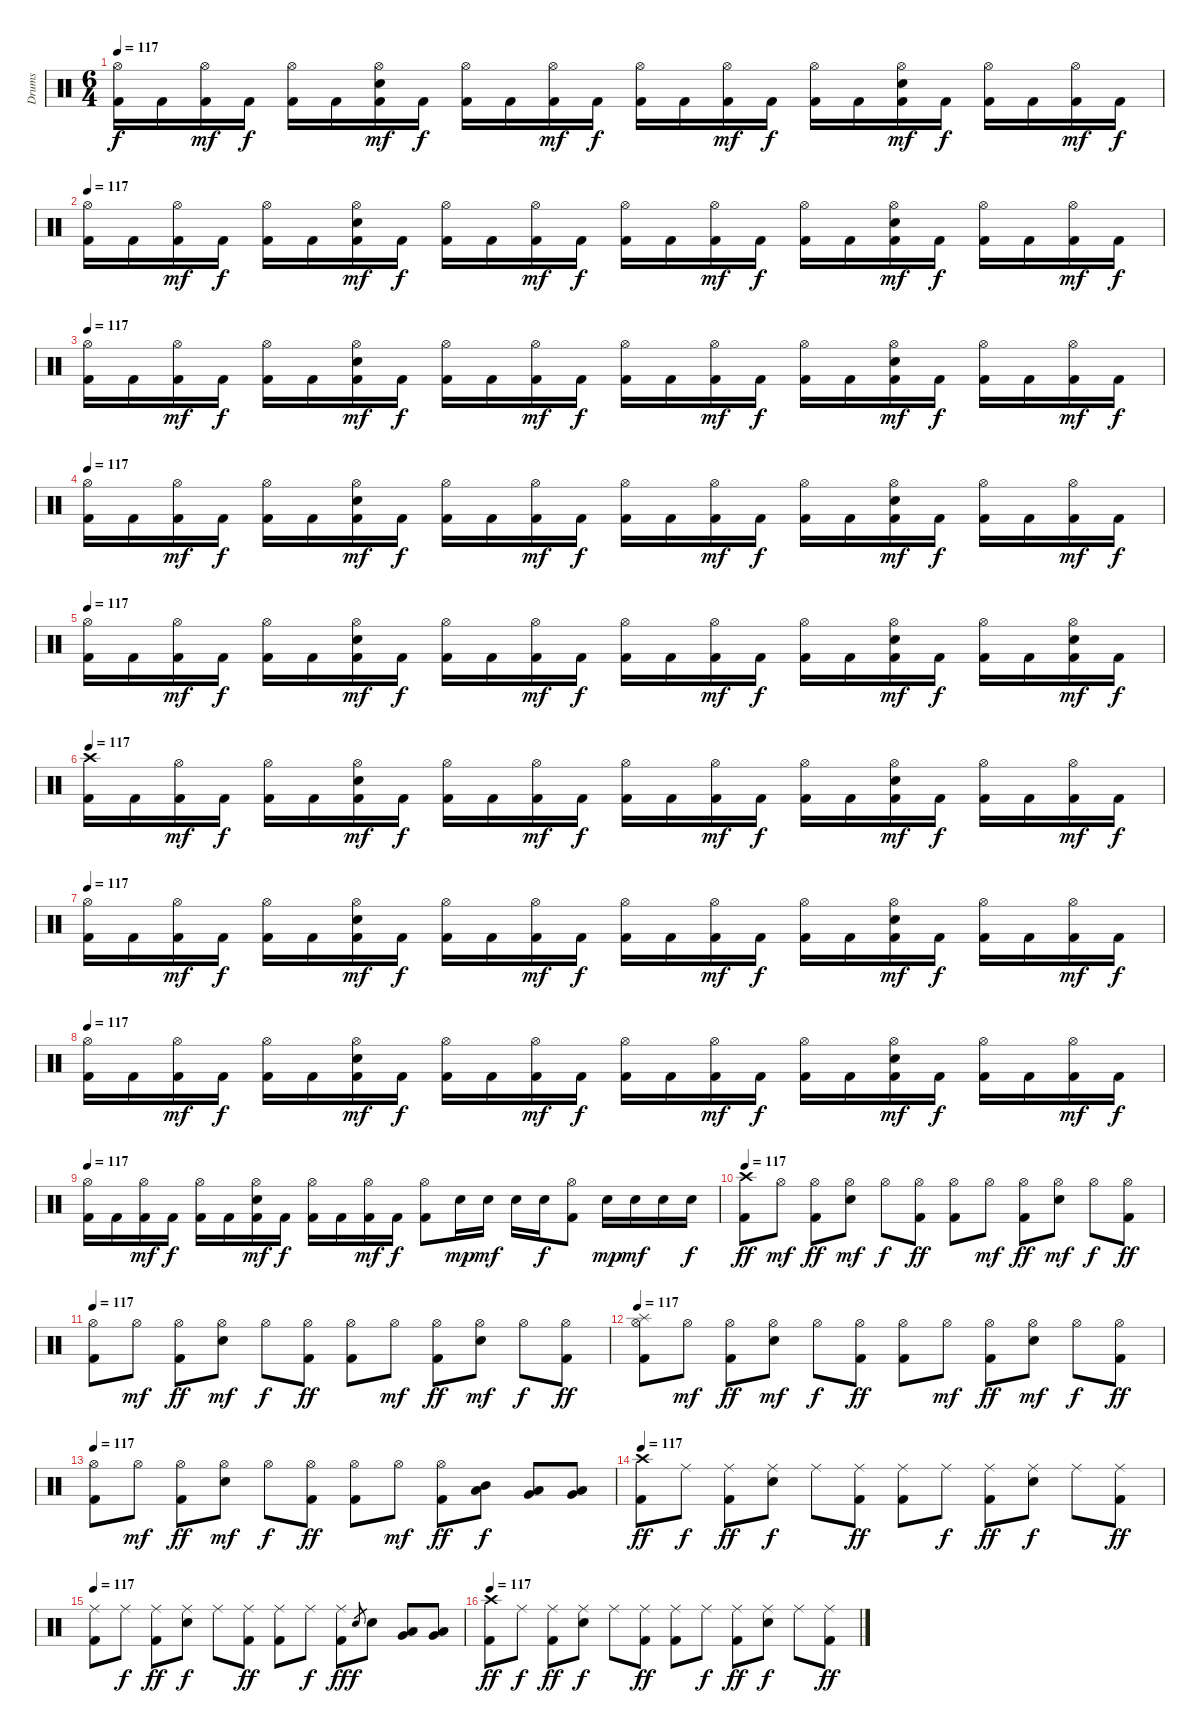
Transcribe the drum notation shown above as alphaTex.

\track ("Drums" "Drums") {instrument percussion}
\staff {score}
\articulation defaults
\ts (6 4)
\tempo 117
\clef neutral
\ks c
("Hi-Hat (open)" "Kick (hit) 2").16{dy f} "Kick (hit) 2".16 ("Hi-Hat (open)" "Kick (hit) 2").16{dy mf} "Kick (hit) 2".16{dy f} ("Hi-Hat (open)" "Kick (hit) 2").16 "Kick (hit) 2".16 ("Hi-Hat (open)" "Electric Snare (hit)" "Kick (hit) 2").16{dy mf} "Kick (hit) 2".16{dy f} ("Hi-Hat (open)" "Kick (hit) 2").16 "Kick (hit) 2".16 ("Hi-Hat (open)" "Kick (hit) 2").16{dy mf} "Kick (hit) 2".16{dy f} ("Hi-Hat (open)" "Kick (hit) 2").16 "Kick (hit) 2".16 ("Hi-Hat (open)" "Kick (hit) 2").16{dy mf} "Kick (hit) 2".16{dy f} ("Hi-Hat (open)" "Kick (hit) 2").16 "Kick (hit) 2".16 ("Hi-Hat (open)" "Electric Snare (hit)" "Kick (hit) 2").16{dy mf} "Kick (hit) 2".16{dy f} ("Hi-Hat (open)" "Kick (hit) 2").16 "Kick (hit) 2".16 ("Hi-Hat (open)" "Kick (hit) 2").16{dy mf} "Kick (hit) 2".16{dy f} |
\tempo 117
("Hi-Hat (open)" "Kick (hit) 2").16 "Kick (hit) 2".16 ("Hi-Hat (open)" "Kick (hit) 2").16{dy mf} "Kick (hit) 2".16{dy f} ("Hi-Hat (open)" "Kick (hit) 2").16 "Kick (hit) 2".16 ("Hi-Hat (open)" "Electric Snare (hit)" "Kick (hit) 2").16{dy mf} "Kick (hit) 2".16{dy f} ("Hi-Hat (open)" "Kick (hit) 2").16 "Kick (hit) 2".16 ("Hi-Hat (open)" "Kick (hit) 2").16{dy mf} "Kick (hit) 2".16{dy f} ("Hi-Hat (open)" "Kick (hit) 2").16 "Kick (hit) 2".16 ("Hi-Hat (open)" "Kick (hit) 2").16{dy mf} "Kick (hit) 2".16{dy f} ("Hi-Hat (open)" "Kick (hit) 2").16 "Kick (hit) 2".16 ("Hi-Hat (open)" "Electric Snare (hit)" "Kick (hit) 2").16{dy mf} "Kick (hit) 2".16{dy f} ("Hi-Hat (open)" "Kick (hit) 2").16 "Kick (hit) 2".16 ("Hi-Hat (open)" "Kick (hit) 2").16{dy mf} "Kick (hit) 2".16{dy f} |
\tempo 117
("Hi-Hat (open)" "Kick (hit) 2").16 "Kick (hit) 2".16 ("Hi-Hat (open)" "Kick (hit) 2").16{dy mf} "Kick (hit) 2".16{dy f} ("Hi-Hat (open)" "Kick (hit) 2").16 "Kick (hit) 2".16 ("Hi-Hat (open)" "Electric Snare (hit)" "Kick (hit) 2").16{dy mf} "Kick (hit) 2".16{dy f} ("Hi-Hat (open)" "Kick (hit) 2").16 "Kick (hit) 2".16 ("Hi-Hat (open)" "Kick (hit) 2").16{dy mf} "Kick (hit) 2".16{dy f} ("Hi-Hat (open)" "Kick (hit) 2").16 "Kick (hit) 2".16 ("Hi-Hat (open)" "Kick (hit) 2").16{dy mf} "Kick (hit) 2".16{dy f} ("Hi-Hat (open)" "Kick (hit) 2").16 "Kick (hit) 2".16 ("Hi-Hat (open)" "Electric Snare (hit)" "Kick (hit) 2").16{dy mf} "Kick (hit) 2".16{dy f} ("Hi-Hat (open)" "Kick (hit) 2").16 "Kick (hit) 2".16 ("Hi-Hat (open)" "Kick (hit) 2").16{dy mf} "Kick (hit) 2".16{dy f} |
\tempo 117
("Hi-Hat (open)" "Kick (hit) 2").16 "Kick (hit) 2".16 ("Hi-Hat (open)" "Kick (hit) 2").16{dy mf} "Kick (hit) 2".16{dy f} ("Hi-Hat (open)" "Kick (hit) 2").16 "Kick (hit) 2".16 ("Hi-Hat (open)" "Electric Snare (hit)" "Kick (hit) 2").16{dy mf} "Kick (hit) 2".16{dy f} ("Hi-Hat (open)" "Kick (hit) 2").16 "Kick (hit) 2".16 ("Hi-Hat (open)" "Kick (hit) 2").16{dy mf} "Kick (hit) 2".16{dy f} ("Hi-Hat (open)" "Kick (hit) 2").16 "Kick (hit) 2".16 ("Hi-Hat (open)" "Kick (hit) 2").16{dy mf} "Kick (hit) 2".16{dy f} ("Hi-Hat (open)" "Kick (hit) 2").16 "Kick (hit) 2".16 ("Hi-Hat (open)" "Electric Snare (hit)" "Kick (hit) 2").16{dy mf} "Kick (hit) 2".16{dy f} ("Hi-Hat (open)" "Kick (hit) 2").16 "Kick (hit) 2".16 ("Hi-Hat (open)" "Kick (hit) 2").16{dy mf} "Kick (hit) 2".16{dy f} |
\tempo 117
("Hi-Hat (open)" "Kick (hit) 2").16 "Kick (hit) 2".16 ("Hi-Hat (open)" "Kick (hit) 2").16{dy mf} "Kick (hit) 2".16{dy f} ("Hi-Hat (open)" "Kick (hit) 2").16 "Kick (hit) 2".16 ("Hi-Hat (open)" "Electric Snare (hit)" "Kick (hit) 2").16{dy mf} "Kick (hit) 2".16{dy f} ("Hi-Hat (open)" "Kick (hit) 2").16 "Kick (hit) 2".16 ("Hi-Hat (open)" "Kick (hit) 2").16{dy mf} "Kick (hit) 2".16{dy f} ("Hi-Hat (open)" "Kick (hit) 2").16 "Kick (hit) 2".16 ("Hi-Hat (open)" "Kick (hit) 2").16{dy mf} "Kick (hit) 2".16{dy f} ("Hi-Hat (open)" "Kick (hit) 2").16 "Kick (hit) 2".16 ("Hi-Hat (open)" "Electric Snare (hit)" "Kick (hit) 2").16{dy mf} "Kick (hit) 2".16{dy f} ("Hi-Hat (open)" "Kick (hit) 2").16 "Kick (hit) 2".16 ("Hi-Hat (open)" "Electric Snare (hit)" "Kick (hit) 2").16{dy mf} "Kick (hit) 2".16{dy f} |
\tempo 117
("Crash high (hit)" "Kick (hit) 2").16 "Kick (hit) 2".16 ("Hi-Hat (open)" "Kick (hit) 2").16{dy mf} "Kick (hit) 2".16{dy f} ("Hi-Hat (open)" "Kick (hit) 2").16 "Kick (hit) 2".16 ("Hi-Hat (open)" "Electric Snare (hit)" "Kick (hit) 2").16{dy mf} "Kick (hit) 2".16{dy f} ("Hi-Hat (open)" "Kick (hit) 2").16 "Kick (hit) 2".16 ("Hi-Hat (open)" "Kick (hit) 2").16{dy mf} "Kick (hit) 2".16{dy f} ("Hi-Hat (open)" "Kick (hit) 2").16 "Kick (hit) 2".16 ("Hi-Hat (open)" "Kick (hit) 2").16{dy mf} "Kick (hit) 2".16{dy f} ("Hi-Hat (open)" "Kick (hit) 2").16 "Kick (hit) 2".16 ("Hi-Hat (open)" "Electric Snare (hit)" "Kick (hit) 2").16{dy mf} "Kick (hit) 2".16{dy f} ("Hi-Hat (open)" "Kick (hit) 2").16 "Kick (hit) 2".16 ("Hi-Hat (open)" "Kick (hit) 2").16{dy mf} "Kick (hit) 2".16{dy f} |
\tempo 117
("Hi-Hat (open)" "Kick (hit) 2").16 "Kick (hit) 2".16 ("Hi-Hat (open)" "Kick (hit) 2").16{dy mf} "Kick (hit) 2".16{dy f} ("Hi-Hat (open)" "Kick (hit) 2").16 "Kick (hit) 2".16 ("Hi-Hat (open)" "Electric Snare (hit)" "Kick (hit) 2").16{dy mf} "Kick (hit) 2".16{dy f} ("Hi-Hat (open)" "Kick (hit) 2").16 "Kick (hit) 2".16 ("Hi-Hat (open)" "Kick (hit) 2").16{dy mf} "Kick (hit) 2".16{dy f} ("Hi-Hat (open)" "Kick (hit) 2").16 "Kick (hit) 2".16 ("Hi-Hat (open)" "Kick (hit) 2").16{dy mf} "Kick (hit) 2".16{dy f} ("Hi-Hat (open)" "Kick (hit) 2").16 "Kick (hit) 2".16 ("Hi-Hat (open)" "Electric Snare (hit)" "Kick (hit) 2").16{dy mf} "Kick (hit) 2".16{dy f} ("Hi-Hat (open)" "Kick (hit) 2").16 "Kick (hit) 2".16 ("Hi-Hat (open)" "Kick (hit) 2").16{dy mf} "Kick (hit) 2".16{dy f} |
\tempo 117
("Hi-Hat (open)" "Kick (hit) 2").16 "Kick (hit) 2".16 ("Hi-Hat (open)" "Kick (hit) 2").16{dy mf} "Kick (hit) 2".16{dy f} ("Hi-Hat (open)" "Kick (hit) 2").16 "Kick (hit) 2".16 ("Hi-Hat (open)" "Electric Snare (hit)" "Kick (hit) 2").16{dy mf} "Kick (hit) 2".16{dy f} ("Hi-Hat (open)" "Kick (hit) 2").16 "Kick (hit) 2".16 ("Hi-Hat (open)" "Kick (hit) 2").16{dy mf} "Kick (hit) 2".16{dy f} ("Hi-Hat (open)" "Kick (hit) 2").16 "Kick (hit) 2".16 ("Hi-Hat (open)" "Kick (hit) 2").16{dy mf} "Kick (hit) 2".16{dy f} ("Hi-Hat (open)" "Kick (hit) 2").16 "Kick (hit) 2".16 ("Hi-Hat (open)" "Electric Snare (hit)" "Kick (hit) 2").16{dy mf} "Kick (hit) 2".16{dy f} ("Hi-Hat (open)" "Kick (hit) 2").16 "Kick (hit) 2".16 ("Hi-Hat (open)" "Kick (hit) 2").16{dy mf} "Kick (hit) 2".16{dy f} |
\tempo 117
("Hi-Hat (open)" "Kick (hit) 2").16 "Kick (hit) 2".16 ("Hi-Hat (open)" "Kick (hit) 2").16{dy mf} "Kick (hit) 2".16{dy f} ("Hi-Hat (open)" "Kick (hit) 2").16 "Kick (hit) 2".16 ("Hi-Hat (open)" "Electric Snare (hit)" "Kick (hit) 2").16{dy mf} "Kick (hit) 2".16{dy f} ("Hi-Hat (open)" "Kick (hit) 2").16 "Kick (hit) 2".16 ("Hi-Hat (open)" "Kick (hit) 2").16{dy mf} "Kick (hit) 2".16{dy f} ("Hi-Hat (open)" "Kick (hit) 2").8 "Electric Snare (hit)".16{dy mp} "Electric Snare (hit)".16{dy mf} "Electric Snare (hit)".16 "Electric Snare (hit)".16{dy f} ("Hi-Hat (open)" "Kick (hit) 2").8 "Electric Snare (hit)".16{dy mp} "Electric Snare (hit)".16{dy mf} "Electric Snare (hit)".16 "Electric Snare (hit)".16{dy f} |
\tempo 117
("Crash high (hit)" "Kick (hit) 2").8{dy ff} "Hi-Hat (open)".8{dy mf} ("Hi-Hat (open)" "Kick (hit) 2").8{dy ff} ("Hi-Hat (open)" "Electric Snare (hit)").8{dy mf} "Hi-Hat (open)".8{dy f} ("Hi-Hat (open)" "Kick (hit) 2").8{dy ff} ("Hi-Hat (open)" "Kick (hit) 2").8 "Hi-Hat (open)".8{dy mf} ("Hi-Hat (open)" "Kick (hit) 2").8{dy ff} ("Hi-Hat (open)" "Electric Snare (hit)").8{dy mf} "Hi-Hat (open)".8{dy f} ("Hi-Hat (open)" "Kick (hit) 2").8{dy ff} |
\tempo 117
("Hi-Hat (open)" "Kick (hit) 2").8 "Hi-Hat (open)".8{dy mf} ("Hi-Hat (open)" "Kick (hit) 2").8{dy ff} ("Hi-Hat (open)" "Electric Snare (hit)").8{dy mf} "Hi-Hat (open)".8{dy f} ("Hi-Hat (open)" "Kick (hit) 2").8{dy ff} ("Hi-Hat (open)" "Kick (hit) 2").8 "Hi-Hat (open)".8{dy mf} ("Hi-Hat (open)" "Kick (hit) 2").8{dy ff} ("Hi-Hat (open)" "Electric Snare (hit)").8{dy mf} "Hi-Hat (open)".8{dy f} ("Hi-Hat (open)" "Kick (hit) 2").8{dy ff} |
\tempo 117
("Hi-Hat (open)" "Splash (hit)" "Kick (hit) 2").8 "Hi-Hat (open)".8{dy mf} ("Hi-Hat (open)" "Kick (hit) 2").8{dy ff} ("Hi-Hat (open)" "Electric Snare (hit)").8{dy mf} "Hi-Hat (open)".8{dy f} ("Hi-Hat (open)" "Kick (hit) 2").8{dy ff} ("Hi-Hat (open)" "Kick (hit) 2").8 "Hi-Hat (open)".8{dy mf} ("Hi-Hat (open)" "Kick (hit) 2").8{dy ff} ("Hi-Hat (open)" "Electric Snare (hit)").8{dy mf} "Hi-Hat (open)".8{dy f} ("Hi-Hat (open)" "Kick (hit) 2").8{dy ff} |
\tempo 117
("Hi-Hat (open)" "Kick (hit) 2").8 "Hi-Hat (open)".8{dy mf} ("Hi-Hat (open)" "Kick (hit) 2").8{dy ff} ("Hi-Hat (open)" "Electric Snare (hit)").8{dy mf} "Hi-Hat (open)".8{dy f} ("Hi-Hat (open)" "Kick (hit) 2").8{dy ff} ("Hi-Hat (open)" "Kick (hit) 2").8 "Hi-Hat (open)".8{dy mf} ("Hi-Hat (open)" "Kick (hit) 2").8{dy ff} ("Mid Tom (hit)" "Low Tom (hit)").8{dy f} ("Low Tom (hit)" "Very Low Tom (hit)").8 ("Very Low Tom (hit)" "Low Floor Tom (hit)").8 |
\tempo 117
("Crash high (hit)" "Kick (hit) 2").8{dy ff} "Ride (middle)".8{dy f} ("Ride (middle)" "Kick (hit) 2").8{dy ff} ("Ride (middle)" "Electric Snare (hit)").8{dy f} "Ride (middle)".8 ("Ride (middle)" "Kick (hit) 2").8{dy ff} ("Ride (middle)" "Kick (hit) 2").8 "Ride (middle)".8{dy f} ("Ride (middle)" "Kick (hit) 2").8{dy ff} ("Ride (middle)" "Electric Snare (hit)").8{dy f} "Ride (middle)".8 ("Ride (middle)" "Kick (hit) 2").8{dy ff} |
\tempo 117
("Ride (middle)" "Kick (hit) 2").8 "Ride (middle)".8{dy f} ("Ride (middle)" "Kick (hit) 2").8{dy ff} ("Ride (middle)" "Electric Snare (hit)").8{dy f} "Ride (middle)".8 ("Ride (middle)" "Kick (hit) 2").8{dy ff} ("Ride (middle)" "Kick (hit) 2").8 "Ride (middle)".8{dy f} ("Ride (middle)" "Kick (hit) 2").8{dy ff} "Electric Snare (hit)".8{gr dy f} "Electric Snare (hit)".8 ("Low Tom (hit)" "Very Low Tom (hit)").8 ("Very Low Tom (hit)" "Low Floor Tom (hit)").8 |
\tempo 117
("Crash high (hit)" "Kick (hit) 2").8{dy ff} "Ride (middle)".8{dy f} ("Ride (middle)" "Kick (hit) 2").8{dy ff} ("Ride (middle)" "Electric Snare (hit)").8{dy f} "Ride (middle)".8 ("Ride (middle)" "Kick (hit) 2").8{dy ff} ("Ride (middle)" "Kick (hit) 2").8 "Ride (middle)".8{dy f} ("Ride (middle)" "Kick (hit) 2").8{dy ff} ("Ride (middle)" "Electric Snare (hit)").8{dy f} "Ride (middle)".8 ("Ride (middle)" "Kick (hit) 2").8{dy ff}
